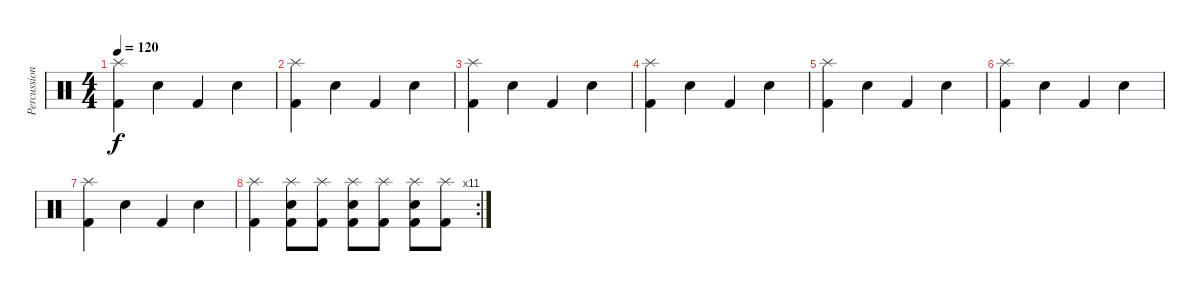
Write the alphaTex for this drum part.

\track ("Percussion" "Percussion") {instrument percussion}
\staff {score}
\articulation defaults
\ts (4 4)
\tempo 120
\clef neutral
\ks c
("Splash (hit)" "Kick (hit) 2").4{dy f} "Electric Snare (hit)".4 "Kick (hit) 2".4 "Electric Snare (hit)".4 |
("Splash (hit)" "Kick (hit) 2").4 "Electric Snare (hit)".4 "Kick (hit) 2".4 "Electric Snare (hit)".4 |
("Splash (hit)" "Kick (hit) 2").4 "Electric Snare (hit)".4 "Kick (hit) 2".4 "Electric Snare (hit)".4 |
("Splash (hit)" "Kick (hit) 2").4 "Electric Snare (hit)".4 "Kick (hit) 2".4 "Electric Snare (hit)".4 |
("Splash (hit)" "Kick (hit) 2").4 "Electric Snare (hit)".4 "Kick (hit) 2".4 "Electric Snare (hit)".4 |
("Splash (hit)" "Kick (hit) 2").4 "Electric Snare (hit)".4 "Kick (hit) 2".4 "Electric Snare (hit)".4 |
("Splash (hit)" "Kick (hit) 2").4 "Electric Snare (hit)".4 "Kick (hit) 2".4 "Electric Snare (hit)".4 |
\rc 11
("Splash (hit)" "Kick (hit) 2").4 ("Splash (hit)" "Electric Snare (hit)" "Kick (hit) 2").8 ("Splash (hit)" "Kick (hit) 2").8 ("Splash (hit)" "Electric Snare (hit)" "Kick (hit) 2").8 ("Splash (hit)" "Kick (hit) 2").8 ("Splash (hit)" "Electric Snare (hit)" "Kick (hit) 2").8 ("Splash (hit)" "Kick (hit) 2").8
